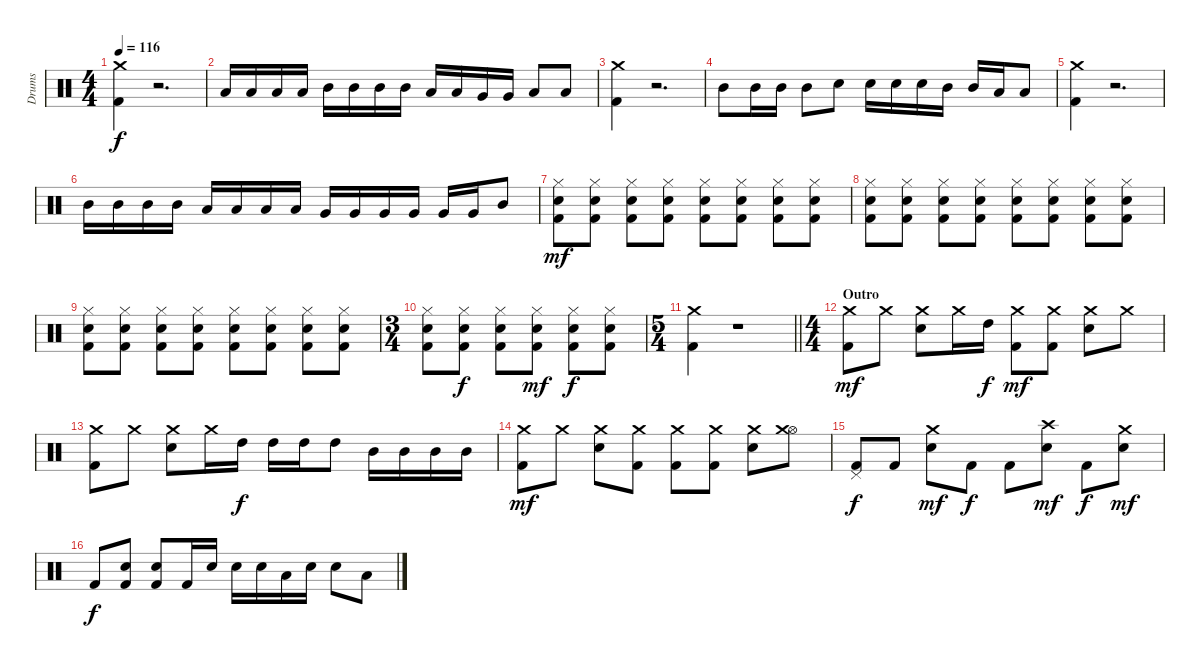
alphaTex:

\track ("Drums" "Drums") {instrument percussion}
\staff {score}
\articulation defaults
\ts (4 4)
\tempo 116
\clef neutral
\ks c
("Kick (hit) 2" "Crash medium (hit)").4{dy f} r.2{d} |
"Low Tom (hit)".16 "Low Tom (hit)".16 "Low Tom (hit)".16 "Low Tom (hit)".16 "Mid Tom (hit)".16 "Mid Tom (hit)".16 "Mid Tom (hit)".16 "Mid Tom (hit)".16 "Low Tom (hit)".16 "Low Tom (hit)".16 "Very Low Tom (hit)".16 "Very Low Tom (hit)".16 "Low Tom (hit)".8 "Low Tom (hit)".8 |
("Crash medium (hit)" "Kick (hit) 2").4 r.2{d} |
"Mid Tom (hit)".8 "Mid Tom (hit)".16 "Mid Tom (hit)".16 "Mid Tom (hit)".8 "Snare (hit) 2".8 "Snare (hit) 2".16 "Snare (hit) 2".16 "Snare (hit) 2".16 "Mid Tom (hit)".16 "Mid Tom (hit)".16 "Low Tom (hit)".16 "Low Tom (hit)".8 |
("Crash medium (hit)" "Kick (hit) 2").4 r.2{d} |
"Mid Tom (hit)".16 "Mid Tom (hit)".16 "Mid Tom (hit)".16 "Mid Tom (hit)".16 "Low Tom (hit)".16 "Low Tom (hit)".16 "Low Tom (hit)".16 "Low Tom (hit)".16 "Very Low Tom (hit)".16 "Very Low Tom (hit)".16 "Very Low Tom (hit)".16 "Very Low Tom (hit)".16 "Very Low Tom (hit)".16 "Very Low Tom (hit)".16 "Mid Tom (hit)".8 |
("Kick (hit) 2" "Snare (hit) 2" "Hi-Hat (closed)").8{dy mf} ("Kick (hit) 2" "Snare (hit) 2" "Hi-Hat (closed)").8 ("Snare (hit) 2" "Hi-Hat (closed)" "Kick (hit) 2").8 ("Kick (hit) 2" "Snare (hit) 2" "Hi-Hat (closed)").8 ("Snare (hit) 2" "Hi-Hat (closed)" "Kick (hit) 2").8 ("Kick (hit) 2" "Snare (hit) 2" "Hi-Hat (closed)").8 ("Hi-Hat (closed)" "Snare (hit) 2" "Kick (hit) 2").8 ("Hi-Hat (closed)" "Kick (hit) 2" "Snare (hit) 2").8 |
("Kick (hit) 2" "Hi-Hat (closed)" "Snare (hit) 2").8 ("Hi-Hat (closed)" "Kick (hit) 2" "Snare (hit) 2").8 ("Kick (hit) 2" "Hi-Hat (closed)" "Snare (hit) 2").8 ("Snare (hit) 2" "Hi-Hat (closed)" "Kick (hit) 2").8 ("Kick (hit) 2" "Hi-Hat (closed)" "Snare (hit) 2").8 ("Kick (hit) 2" "Snare (hit) 2" "Hi-Hat (closed)").8 ("Kick (hit) 2" "Hi-Hat (closed)" "Snare (hit) 2").8 ("Hi-Hat (closed)" "Kick (hit) 2" "Snare (hit) 2").8 |
("Kick (hit) 2" "Hi-Hat (closed)" "Snare (hit) 2").8 ("Hi-Hat (closed)" "Kick (hit) 2" "Snare (hit) 2").8 ("Kick (hit) 2" "Hi-Hat (closed)" "Snare (hit) 2").8 ("Snare (hit) 2" "Hi-Hat (closed)" "Kick (hit) 2").8 ("Kick (hit) 2" "Hi-Hat (closed)" "Snare (hit) 2").8 ("Kick (hit) 2" "Snare (hit) 2" "Hi-Hat (closed)").8 ("Kick (hit) 2" "Hi-Hat (closed)" "Snare (hit) 2").8 ("Hi-Hat (closed)" "Kick (hit) 2" "Snare (hit) 2").8 |
\ts (3 4)
("Snare (hit) 2" "Hi-Hat (closed)" "Kick (hit) 2").8 ("Hi-Hat (closed)" "Snare (hit) 2" "Kick (hit) 2").8{dy f} ("Snare (hit) 2" "Kick (hit) 2" "Hi-Hat (closed)").8 ("Snare (hit) 2" "Hi-Hat (closed)" "Kick (hit) 2").8{dy mf} ("Kick (hit) 2" "Hi-Hat (closed)" "Snare (hit) 2").8{dy f} ("Hi-Hat (closed)" "Snare (hit) 2" "Kick (hit) 2").8 |
\ts (5 4)
\barLineRight lightlight
("Kick (hit) 2" "Crash medium (hit)").4 r.1 |
\ts (4 4)
\section ("" "Outro")
("Kick (hit) 2" "Crash medium (hit)").8{dy mf} "Crash medium (hit)".8 ("Snare (hit) 2" "Crash medium (hit)").8 "Crash medium (hit)".16 "High Tom (hit)".16{dy f} ("Kick (hit) 2" "Crash medium (hit)").8{dy mf} ("Kick (hit) 2" "Crash medium (hit)").8 ("Crash medium (hit)" "Snare (hit) 2").8 "Crash medium (hit)".8 |
("Kick (hit) 2" "Crash medium (hit)").8 "Crash medium (hit)".8 ("Crash medium (hit)" "Snare (hit) 2").8 "Crash medium (hit)".16 "High Tom (hit)".16{dy f} "High Tom (hit)".16 "High Tom (hit)".16 "High Tom (hit)".8 "Mid Tom (hit)".16 "Mid Tom (hit)".16 "Mid Tom (hit)".16 "Mid Tom (hit)".16 |
("Crash medium (hit)" "Kick (hit) 2").8{dy mf} "Crash medium (hit)".8 ("Crash medium (hit)" "Snare (hit) 2").8 ("Crash medium (hit)" "Kick (hit) 2").8 ("Kick (hit) 2" "Crash medium (hit)").8 ("Crash medium (hit)" "Kick (hit) 2").8 ("Snare (hit) 2" "Crash medium (hit)").8 ("Hi-Hat (open)" "Crash medium (hit)").8 |
("Pedal Hi-Hat (hit)" "Kick (hit) 2").8{dy f} "Kick (hit) 2".8 ("Snare (hit) 2" "Crash medium (hit)").8{dy mf} "Kick (hit) 2".8{dy f} "Kick (hit) 2".8 ("Snare (hit) 2" "Crash high (hit)").8{dy mf} "Kick (hit) 2".8{dy f} ("Snare (hit) 2" "Crash medium (hit)").8{dy mf} |
"Kick (hit) 2".8{dy f} ("Snare (hit) 2" "Kick (hit) 2").8 ("Snare (hit) 2" "Kick (hit) 2").8 "Kick (hit) 2".16 "Snare (hit) 2".16 "Snare (hit) 2".16 "Snare (hit) 2".16 "Low Tom (hit)".16 "Snare (hit) 2".16 "Snare (hit) 2".8 "Low Tom (hit)".8
